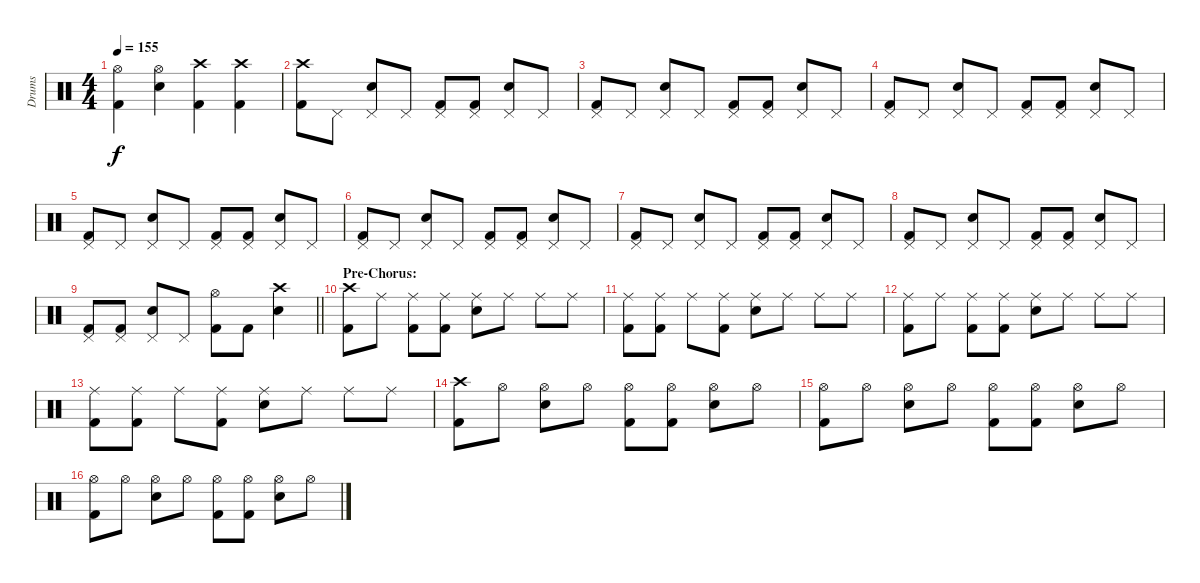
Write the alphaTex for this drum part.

\track ("Drums" "Drums") {instrument percussion}
\staff {score}
\articulation defaults
\ts (4 4)
\tempo 155
\clef neutral
\ks c
("Hi-Hat (open)" "Kick (hit) 2").4{dy f} ("Hi-Hat (open)" "Electric Snare (hit)").4 ("Crash high (hit)" "Kick (hit) 2").4 ("Crash high (hit)" "Kick (hit) 2").4 |
("Crash high (hit)" "Kick (hit) 2").8 "Pedal Hi-Hat (hit)".8 ("Pedal Hi-Hat (hit)" "Electric Snare (hit)").8 "Pedal Hi-Hat (hit)".8 ("Pedal Hi-Hat (hit)" "Kick (hit) 2").8 ("Pedal Hi-Hat (hit)" "Kick (hit) 2").8 ("Pedal Hi-Hat (hit)" "Electric Snare (hit)").8 "Pedal Hi-Hat (hit)".8 |
("Pedal Hi-Hat (hit)" "Kick (hit) 2").8 "Pedal Hi-Hat (hit)".8 ("Pedal Hi-Hat (hit)" "Electric Snare (hit)").8 "Pedal Hi-Hat (hit)".8 ("Pedal Hi-Hat (hit)" "Kick (hit) 2").8 ("Pedal Hi-Hat (hit)" "Kick (hit) 2").8 ("Pedal Hi-Hat (hit)" "Electric Snare (hit)").8 "Pedal Hi-Hat (hit)".8 |
("Pedal Hi-Hat (hit)" "Kick (hit) 2").8 "Pedal Hi-Hat (hit)".8 ("Pedal Hi-Hat (hit)" "Electric Snare (hit)").8 "Pedal Hi-Hat (hit)".8 ("Pedal Hi-Hat (hit)" "Kick (hit) 2").8 ("Pedal Hi-Hat (hit)" "Kick (hit) 2").8 ("Pedal Hi-Hat (hit)" "Electric Snare (hit)").8 "Pedal Hi-Hat (hit)".8 |
("Pedal Hi-Hat (hit)" "Kick (hit) 2").8 "Pedal Hi-Hat (hit)".8 ("Pedal Hi-Hat (hit)" "Electric Snare (hit)").8 "Pedal Hi-Hat (hit)".8 ("Pedal Hi-Hat (hit)" "Kick (hit) 2").8 ("Pedal Hi-Hat (hit)" "Kick (hit) 2").8 ("Pedal Hi-Hat (hit)" "Electric Snare (hit)").8 "Pedal Hi-Hat (hit)".8 |
("Pedal Hi-Hat (hit)" "Kick (hit) 2").8 "Pedal Hi-Hat (hit)".8 ("Pedal Hi-Hat (hit)" "Electric Snare (hit)").8 "Pedal Hi-Hat (hit)".8 ("Pedal Hi-Hat (hit)" "Kick (hit) 2").8 ("Pedal Hi-Hat (hit)" "Kick (hit) 2").8 ("Pedal Hi-Hat (hit)" "Electric Snare (hit)").8 "Pedal Hi-Hat (hit)".8 |
("Pedal Hi-Hat (hit)" "Kick (hit) 2").8 "Pedal Hi-Hat (hit)".8 ("Pedal Hi-Hat (hit)" "Electric Snare (hit)").8 "Pedal Hi-Hat (hit)".8 ("Pedal Hi-Hat (hit)" "Kick (hit) 2").8 ("Pedal Hi-Hat (hit)" "Kick (hit) 2").8 ("Pedal Hi-Hat (hit)" "Electric Snare (hit)").8 "Pedal Hi-Hat (hit)".8 |
("Pedal Hi-Hat (hit)" "Kick (hit) 2").8 "Pedal Hi-Hat (hit)".8 ("Pedal Hi-Hat (hit)" "Electric Snare (hit)").8 "Pedal Hi-Hat (hit)".8 ("Pedal Hi-Hat (hit)" "Kick (hit) 2").8 ("Pedal Hi-Hat (hit)" "Kick (hit) 2").8 ("Pedal Hi-Hat (hit)" "Electric Snare (hit)").8 "Pedal Hi-Hat (hit)".8 |
\barLineRight lightlight
("Pedal Hi-Hat (hit)" "Kick (hit) 2").8 ("Pedal Hi-Hat (hit)" "Kick (hit) 2").8 ("Pedal Hi-Hat (hit)" "Electric Snare (hit)").8 "Pedal Hi-Hat (hit)".8 ("Hi-Hat (open)" "Kick (hit) 2").8 "Kick (hit) 2".8 ("Crash high (hit)" "Electric Snare (hit)").4 |
\section ("" "Pre-Chorus:")
("Crash high (hit)" "Kick (hit) 2").8 "Ride (middle)".8 ("Ride (middle)" "Kick (hit) 2").8 ("Ride (middle)" "Kick (hit) 2").8 ("Ride (middle)" "Electric Snare (hit)").8 "Ride (middle)".8 "Ride (middle)".8 "Ride (middle)".8 |
("Ride (middle)" "Kick (hit) 2").8 ("Ride (middle)" "Kick (hit) 2").8 "Ride (middle)".8 ("Ride (middle)" "Kick (hit) 2").8 ("Ride (middle)" "Electric Snare (hit)").8 "Ride (middle)".8 "Ride (middle)".8 "Ride (middle)".8 |
("Ride (middle)" "Kick (hit) 2").8 "Ride (middle)".8 ("Ride (middle)" "Kick (hit) 2").8 ("Ride (middle)" "Kick (hit) 2").8 ("Ride (middle)" "Electric Snare (hit)").8 "Ride (middle)".8 "Ride (middle)".8 "Ride (middle)".8 |
("Ride (middle)" "Kick (hit) 2").8 ("Ride (middle)" "Kick (hit) 2").8 "Ride (middle)".8 ("Ride (middle)" "Kick (hit) 2").8 ("Ride (middle)" "Electric Snare (hit)").8 "Ride (middle)".8 "Ride (middle)".8 "Ride (middle)".8 |
("Crash high (hit)" "Kick (hit) 2").8 "Hi-Hat (open)".8 ("Hi-Hat (open)" "Electric Snare (hit)").8 "Hi-Hat (open)".8 ("Hi-Hat (open)" "Kick (hit) 2").8 ("Hi-Hat (open)" "Kick (hit) 2").8 ("Hi-Hat (open)" "Electric Snare (hit)").8 "Hi-Hat (open)".8 |
("Hi-Hat (open)" "Kick (hit) 2").8 "Hi-Hat (open)".8 ("Hi-Hat (open)" "Electric Snare (hit)").8 "Hi-Hat (open)".8 ("Hi-Hat (open)" "Kick (hit) 2").8 ("Hi-Hat (open)" "Kick (hit) 2").8 ("Hi-Hat (open)" "Electric Snare (hit)").8 "Hi-Hat (open)".8 |
("Hi-Hat (open)" "Kick (hit) 2").8 "Hi-Hat (open)".8 ("Hi-Hat (open)" "Electric Snare (hit)").8 "Hi-Hat (open)".8 ("Hi-Hat (open)" "Kick (hit) 2").8 ("Hi-Hat (open)" "Kick (hit) 2").8 ("Hi-Hat (open)" "Electric Snare (hit)").8 "Hi-Hat (open)".8
